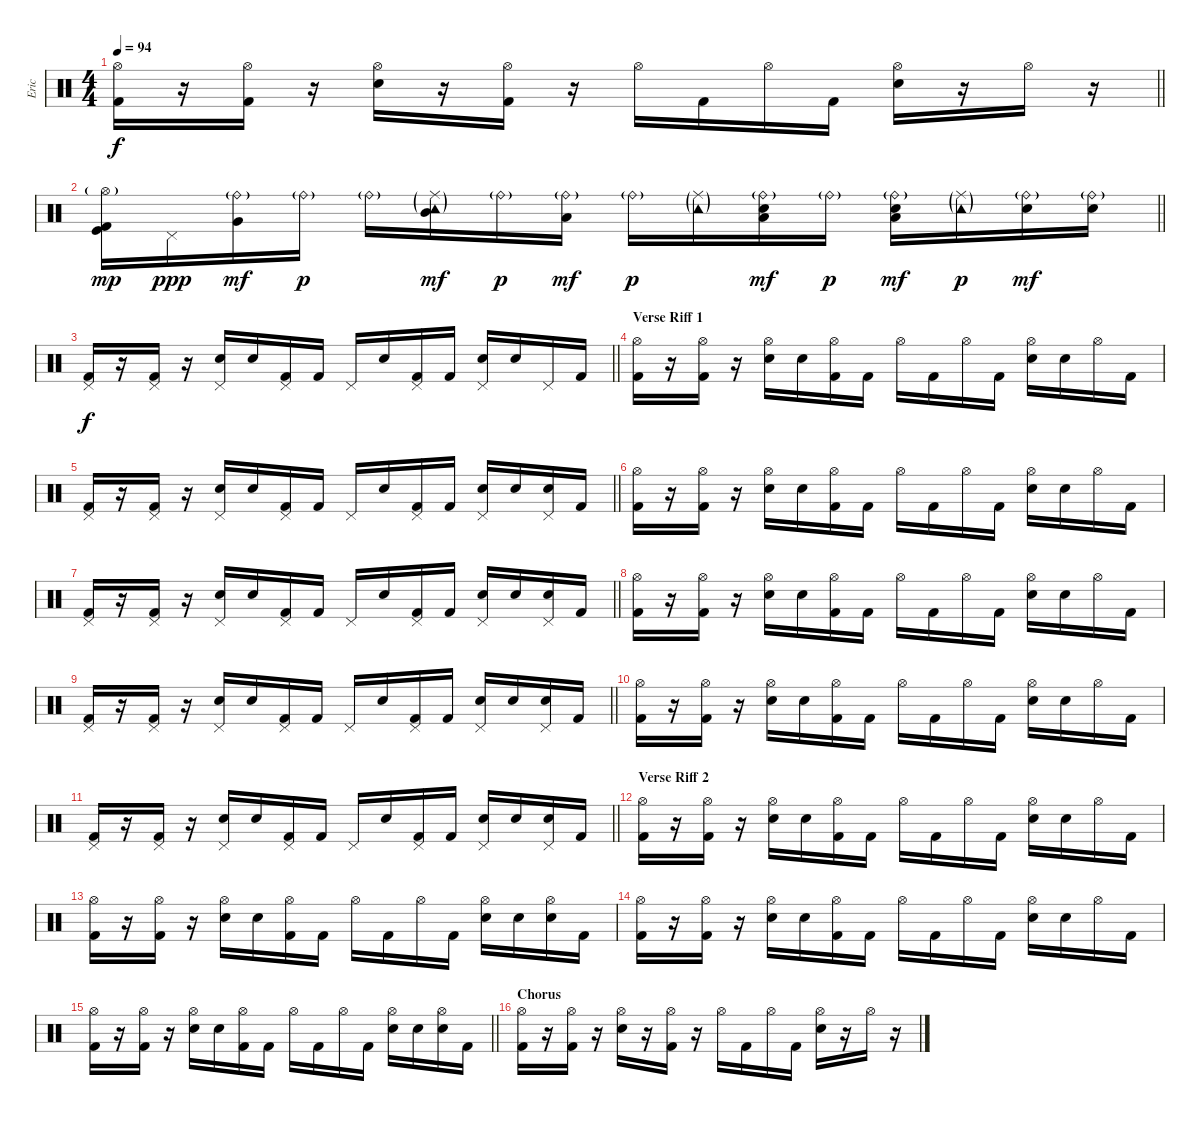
\track ("Eric" "Eric") {instrument percussion}
\staff {score}
\articulation defaults
\ts (4 4)
\tempo 94
\clef neutral
\barLineRight lightlight
\ks c
("Hi-Hat (open)" "Kick (hit) 2").16{dy f} r.16 ("Hi-Hat (open)" "Kick (hit) 2").16 r.16 ("Hi-Hat (open)" "Electric Snare (hit)").16 r.16 ("Hi-Hat (open)" "Kick (hit) 2").16 r.16 "Hi-Hat (open)".16 "Kick (hit) 2".16 "Hi-Hat (open)".16 "Kick (hit) 2".16 ("Hi-Hat (open)" "Electric Snare (hit)").16 r.16 "Hi-Hat (open)".16 r.16 |
\section ("" "")
\barLineRight lightlight
("Hi-Hat (open)"{g} "Kick (hit)" "Kick (hit) 2").16{dy mp} "Pedal Hi-Hat (hit)".16{dy ppp} ("Ride (bell)"{g} "Very Low Tom (hit)").16{dy mf} "Ride (bell)"{g}.16{dy p} "Ride (bell)"{g}.16 ("Ride (middle)"{g} "Tambourine (hit)"{g} "Mid Tom (hit)").16{dy mf} "Ride (bell)"{g}.16{dy p} ("Ride (bell)"{g} "Low Tom (hit)").16{dy mf} "Ride (bell)"{g}.16{dy p} ("Ride (middle)"{g} "Tambourine (hit)"{g}).16 ("Ride (bell)"{g} "Low Tom (hit)" "Electric Snare (hit)").16{dy mf} "Ride (bell)"{g}.16{dy p} ("Ride (bell)"{g} "Low Tom (hit)" "Electric Snare (hit)").16{dy mf} ("Ride (middle)"{g} "Tambourine (hit)"{g}).16{dy p} ("Ride (bell)"{g} "Electric Snare (hit)").16{dy mf} ("Ride (bell)"{g} "Electric Snare (hit)").16 |
\barLineRight lightlight
("Pedal Hi-Hat (hit)" "Kick (hit) 2").16{dy f} r.16 ("Pedal Hi-Hat (hit)" "Kick (hit) 2").16 r.16 ("Pedal Hi-Hat (hit)" "Electric Snare (hit)").16 "Electric Snare (hit)".16 ("Pedal Hi-Hat (hit)" "Kick (hit) 2").16 "Kick (hit) 2".16 "Pedal Hi-Hat (hit)".16 "Electric Snare (hit)".16 ("Pedal Hi-Hat (hit)" "Kick (hit) 2").16 "Kick (hit) 2".16 ("Pedal Hi-Hat (hit)" "Electric Snare (hit)").16 "Electric Snare (hit)".16 "Pedal Hi-Hat (hit)".16 "Kick (hit) 2".16 |
\section ("" "Verse Riff 1")
("Hi-Hat (open)" "Kick (hit) 2").16 r.16 ("Hi-Hat (open)" "Kick (hit) 2").16 r.16 ("Hi-Hat (open)" "Electric Snare (hit)").16 "Electric Snare (hit)".16 ("Hi-Hat (open)" "Kick (hit) 2").16 "Kick (hit) 2".16 "Hi-Hat (open)".16 "Kick (hit) 2".16 "Hi-Hat (open)".16 "Kick (hit) 2".16 ("Hi-Hat (open)" "Electric Snare (hit)").16 "Electric Snare (hit)".16 "Hi-Hat (open)".16 "Kick (hit) 2".16 |
\barLineRight lightlight
("Pedal Hi-Hat (hit)" "Kick (hit) 2").16 r.16 ("Pedal Hi-Hat (hit)" "Kick (hit) 2").16 r.16 ("Pedal Hi-Hat (hit)" "Electric Snare (hit)").16 "Electric Snare (hit)".16 ("Pedal Hi-Hat (hit)" "Kick (hit) 2").16 "Kick (hit) 2".16 "Pedal Hi-Hat (hit)".16 "Electric Snare (hit)".16 ("Pedal Hi-Hat (hit)" "Kick (hit) 2").16 "Kick (hit) 2".16 ("Pedal Hi-Hat (hit)" "Electric Snare (hit)").16 "Electric Snare (hit)".16 ("Pedal Hi-Hat (hit)" "Electric Snare (hit)").16 "Kick (hit) 2".16 |
("Hi-Hat (open)" "Kick (hit) 2").16 r.16 ("Hi-Hat (open)" "Kick (hit) 2").16 r.16 ("Hi-Hat (open)" "Electric Snare (hit)").16 "Electric Snare (hit)".16 ("Hi-Hat (open)" "Kick (hit) 2").16 "Kick (hit) 2".16 "Hi-Hat (open)".16 "Kick (hit) 2".16 "Hi-Hat (open)".16 "Kick (hit) 2".16 ("Hi-Hat (open)" "Electric Snare (hit)").16 "Electric Snare (hit)".16 "Hi-Hat (open)".16 "Kick (hit) 2".16 |
\barLineRight lightlight
("Pedal Hi-Hat (hit)" "Kick (hit) 2").16 r.16 ("Pedal Hi-Hat (hit)" "Kick (hit) 2").16 r.16 ("Pedal Hi-Hat (hit)" "Electric Snare (hit)").16 "Electric Snare (hit)".16 ("Pedal Hi-Hat (hit)" "Kick (hit) 2").16 "Kick (hit) 2".16 "Pedal Hi-Hat (hit)".16 "Electric Snare (hit)".16 ("Pedal Hi-Hat (hit)" "Kick (hit) 2").16 "Kick (hit) 2".16 ("Pedal Hi-Hat (hit)" "Electric Snare (hit)").16 "Electric Snare (hit)".16 ("Pedal Hi-Hat (hit)" "Electric Snare (hit)").16 "Kick (hit) 2".16 |
("Hi-Hat (open)" "Kick (hit) 2").16 r.16 ("Hi-Hat (open)" "Kick (hit) 2").16 r.16 ("Hi-Hat (open)" "Electric Snare (hit)").16 "Electric Snare (hit)".16 ("Hi-Hat (open)" "Kick (hit) 2").16 "Kick (hit) 2".16 "Hi-Hat (open)".16 "Kick (hit) 2".16 "Hi-Hat (open)".16 "Kick (hit) 2".16 ("Hi-Hat (open)" "Electric Snare (hit)").16 "Electric Snare (hit)".16 "Hi-Hat (open)".16 "Kick (hit) 2".16 |
\barLineRight lightlight
("Pedal Hi-Hat (hit)" "Kick (hit) 2").16 r.16 ("Pedal Hi-Hat (hit)" "Kick (hit) 2").16 r.16 ("Pedal Hi-Hat (hit)" "Electric Snare (hit)").16 "Electric Snare (hit)".16 ("Pedal Hi-Hat (hit)" "Kick (hit) 2").16 "Kick (hit) 2".16 "Pedal Hi-Hat (hit)".16 "Electric Snare (hit)".16 ("Pedal Hi-Hat (hit)" "Kick (hit) 2").16 "Kick (hit) 2".16 ("Pedal Hi-Hat (hit)" "Electric Snare (hit)").16 "Electric Snare (hit)".16 ("Pedal Hi-Hat (hit)" "Electric Snare (hit)").16 "Kick (hit) 2".16 |
("Hi-Hat (open)" "Kick (hit) 2").16 r.16 ("Hi-Hat (open)" "Kick (hit) 2").16 r.16 ("Hi-Hat (open)" "Electric Snare (hit)").16 "Electric Snare (hit)".16 ("Hi-Hat (open)" "Kick (hit) 2").16 "Kick (hit) 2".16 "Hi-Hat (open)".16 "Kick (hit) 2".16 "Hi-Hat (open)".16 "Kick (hit) 2".16 ("Hi-Hat (open)" "Electric Snare (hit)").16 "Electric Snare (hit)".16 "Hi-Hat (open)".16 "Kick (hit) 2".16 |
\barLineRight lightlight
("Pedal Hi-Hat (hit)" "Kick (hit) 2").16 r.16 ("Pedal Hi-Hat (hit)" "Kick (hit) 2").16 r.16 ("Pedal Hi-Hat (hit)" "Electric Snare (hit)").16 "Electric Snare (hit)".16 ("Pedal Hi-Hat (hit)" "Kick (hit) 2").16 "Kick (hit) 2".16 "Pedal Hi-Hat (hit)".16 "Electric Snare (hit)".16 ("Pedal Hi-Hat (hit)" "Kick (hit) 2").16 "Kick (hit) 2".16 ("Pedal Hi-Hat (hit)" "Electric Snare (hit)").16 "Electric Snare (hit)".16 ("Pedal Hi-Hat (hit)" "Electric Snare (hit)").16 "Kick (hit) 2".16 |
\section ("" "Verse Riff 2")
("Hi-Hat (open)" "Kick (hit) 2").16 r.16 ("Hi-Hat (open)" "Kick (hit) 2").16 r.16 ("Hi-Hat (open)" "Electric Snare (hit)").16 "Electric Snare (hit)".16 ("Hi-Hat (open)" "Kick (hit) 2").16 "Kick (hit) 2".16 "Hi-Hat (open)".16 "Kick (hit) 2".16 "Hi-Hat (open)".16 "Kick (hit) 2".16 ("Hi-Hat (open)" "Electric Snare (hit)").16 "Electric Snare (hit)".16 "Hi-Hat (open)".16 "Kick (hit) 2".16 |
("Hi-Hat (open)" "Kick (hit) 2").16 r.16 ("Hi-Hat (open)" "Kick (hit) 2").16 r.16 ("Hi-Hat (open)" "Electric Snare (hit)").16 "Electric Snare (hit)".16 ("Hi-Hat (open)" "Kick (hit) 2").16 "Kick (hit) 2".16 "Hi-Hat (open)".16 "Kick (hit) 2".16 "Hi-Hat (open)".16 "Kick (hit) 2".16 ("Hi-Hat (open)" "Electric Snare (hit)").16 "Electric Snare (hit)".16 ("Hi-Hat (open)" "Electric Snare (hit)").16 "Kick (hit) 2".16 |
("Hi-Hat (open)" "Kick (hit) 2").16 r.16 ("Hi-Hat (open)" "Kick (hit) 2").16 r.16 ("Hi-Hat (open)" "Electric Snare (hit)").16 "Electric Snare (hit)".16 ("Hi-Hat (open)" "Kick (hit) 2").16 "Kick (hit) 2".16 "Hi-Hat (open)".16 "Kick (hit) 2".16 "Hi-Hat (open)".16 "Kick (hit) 2".16 ("Hi-Hat (open)" "Electric Snare (hit)").16 "Electric Snare (hit)".16 "Hi-Hat (open)".16 "Kick (hit) 2".16 |
\barLineRight lightlight
("Hi-Hat (open)" "Kick (hit) 2").16 r.16 ("Hi-Hat (open)" "Kick (hit) 2").16 r.16 ("Hi-Hat (open)" "Electric Snare (hit)").16 "Electric Snare (hit)".16 ("Hi-Hat (open)" "Kick (hit) 2").16 "Kick (hit) 2".16 "Hi-Hat (open)".16 "Kick (hit) 2".16 "Hi-Hat (open)".16 "Kick (hit) 2".16 ("Hi-Hat (open)" "Electric Snare (hit)").16 "Electric Snare (hit)".16 ("Hi-Hat (open)" "Electric Snare (hit)").16 "Kick (hit) 2".16 |
\section ("" "Chorus")
("Hi-Hat (open)" "Kick (hit) 2").16 r.16 ("Hi-Hat (open)" "Kick (hit) 2").16 r.16 ("Hi-Hat (open)" "Electric Snare (hit)").16 r.16 ("Hi-Hat (open)" "Kick (hit) 2").16 r.16 "Hi-Hat (open)".16 "Kick (hit) 2".16 "Hi-Hat (open)".16 "Kick (hit) 2".16 ("Hi-Hat (open)" "Electric Snare (hit)").16 r.16 "Hi-Hat (open)".16 r.16
